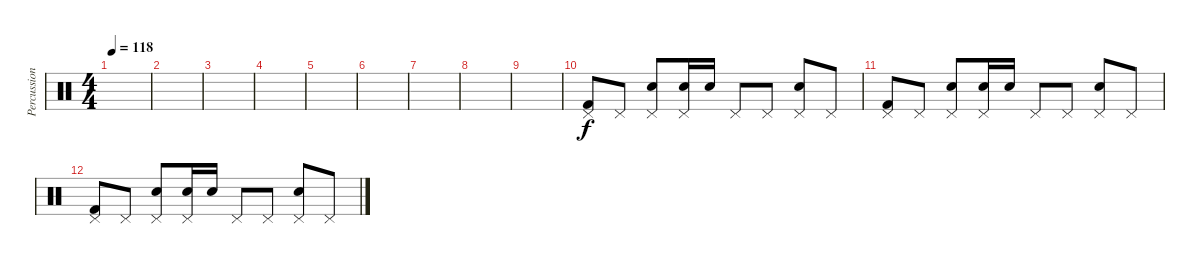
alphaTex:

\track ("Percussions" "Percussion") {instrument percussion}
\staff {score}
\articulation defaults
\ts (4 4)
\tempo 118
\clef neutral
\ks c
|
|
|
|
|
|
|
|
|
("Pedal Hi-Hat (hit)" "Kick (hit) 2").8 "Pedal Hi-Hat (hit)".8 ("Pedal Hi-Hat (hit)" "Electric Snare (hit)").8 ("Pedal Hi-Hat (hit)" "Electric Snare (hit)").16 "Electric Snare (hit)".16 "Pedal Hi-Hat (hit)".8 "Pedal Hi-Hat (hit)".8 ("Pedal Hi-Hat (hit)" "Electric Snare (hit)").8 "Pedal Hi-Hat (hit)".8 |
("Pedal Hi-Hat (hit)" "Kick (hit) 2").8 "Pedal Hi-Hat (hit)".8 ("Pedal Hi-Hat (hit)" "Electric Snare (hit)").8 ("Pedal Hi-Hat (hit)" "Electric Snare (hit)").16 "Electric Snare (hit)".16 "Pedal Hi-Hat (hit)".8 "Pedal Hi-Hat (hit)".8 ("Pedal Hi-Hat (hit)" "Electric Snare (hit)").8 "Pedal Hi-Hat (hit)".8 |
("Pedal Hi-Hat (hit)" "Kick (hit) 2").8 "Pedal Hi-Hat (hit)".8 ("Pedal Hi-Hat (hit)" "Electric Snare (hit)").8 ("Pedal Hi-Hat (hit)" "Electric Snare (hit)").16 "Electric Snare (hit)".16 "Pedal Hi-Hat (hit)".8 "Pedal Hi-Hat (hit)".8 ("Pedal Hi-Hat (hit)" "Electric Snare (hit)").8 "Pedal Hi-Hat (hit)".8
